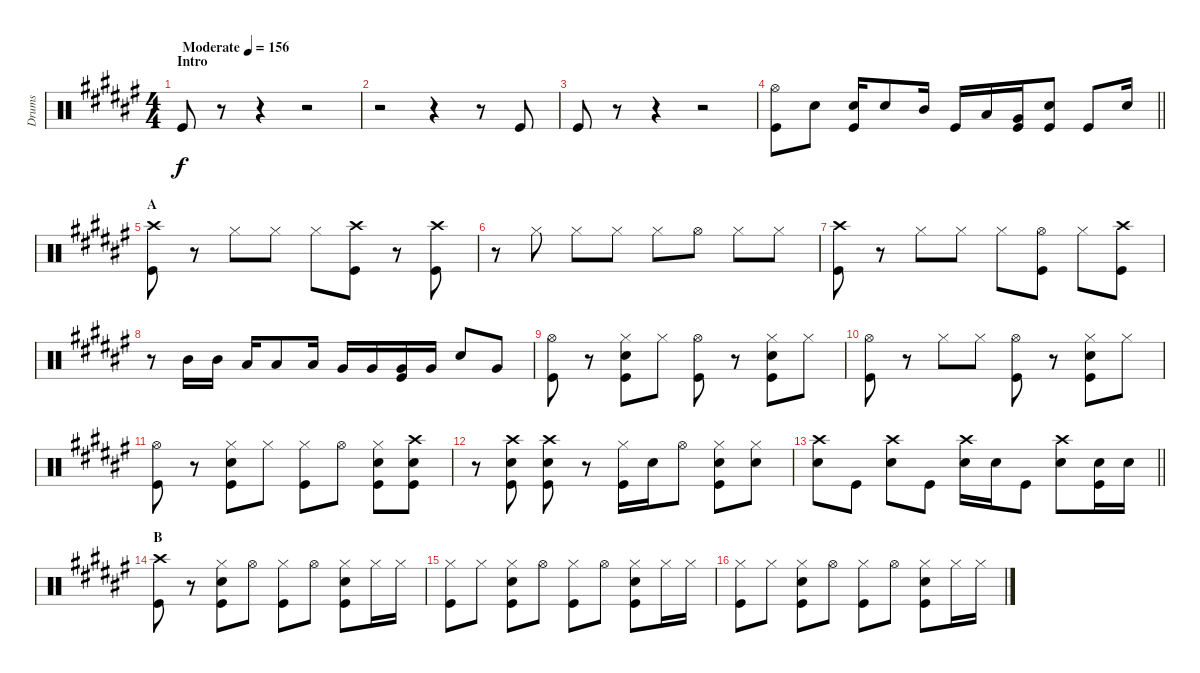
\track ("Drums" "Drums") {instrument percussion}
\staff {score}
\articulation defaults
\ts (4 4)
\section ("" "Intro")
\tempo (156 "Moderate")
\clef neutral
\ks f# "Kick (hit)".8{dy f}
r.8 r.4 r.2 |
r.2 r.4 r.8 "Kick (hit)".8 |
"Kick (hit)".8 r.8 r.4 r.2 |
\barLineRight lightlight
("Hi-Hat (open)" "Kick (hit)").8 "Snare (hit) 2".8 ("Snare (hit) 2" "Kick (hit)").16 "Snare (hit) 2".8 "Mid Tom (hit)".16 "Kick (hit)".16 "Low Tom (hit)".16 ("Very Low Tom (hit)" "Kick (hit)").16 ("Snare (hit) 2" "Kick (hit)").8 "Kick (hit)".8 "Snare (hit) 2".16 |
\section ("" "A")
("Crash high (hit)" "Kick (hit)").8 r.8 "Hi-Hat (closed)".8 "Hi-Hat (closed)".8 "Hi-Hat (closed)".8 ("Crash high (hit)" "Kick (hit)").8 r.8 ("Crash high (hit)" "Kick (hit)").8 |
r.8 "Hi-Hat (closed)".8 "Hi-Hat (closed)".8 "Hi-Hat (closed)".8 "Hi-Hat (closed)".8 "Hi-Hat (open)".8 "Hi-Hat (closed)".8 "Hi-Hat (closed)".8 |
("Crash high (hit)" "Kick (hit)").8 r.8 "Hi-Hat (closed)".8 "Hi-Hat (closed)".8 "Hi-Hat (closed)".8 ("Hi-Hat (open)" "Kick (hit)").8 "Hi-Hat (closed)".8 ("Crash high (hit)" "Kick (hit)").8 |
r.8 "Mid Tom (hit)".16 "Mid Tom (hit)".16 "Low Tom (hit)".16 "Low Tom (hit)".8 "Low Tom (hit)".16 "Very Low Tom (hit)".16 "Very Low Tom (hit)".16 ("Very Low Tom (hit)" "Kick (hit)").16 "Very Low Tom (hit)".16 "Snare (hit) 2".8 "Very Low Tom (hit)".8 |
("Hi-Hat (open)" "Kick (hit)").8 r.8 ("Hi-Hat (closed)" "Snare (hit) 2" "Kick (hit)").8 "Hi-Hat (closed)".8 ("Hi-Hat (open)" "Kick (hit)").8 r.8 ("Hi-Hat (closed)" "Snare (hit) 2" "Kick (hit)").8 "Hi-Hat (closed)".8 |
("Hi-Hat (open)" "Kick (hit)").8 r.8 "Hi-Hat (closed)".8 "Hi-Hat (closed)".8 ("Hi-Hat (open)" "Kick (hit)").8 r.8 ("Hi-Hat (closed)" "Snare (hit) 2" "Kick (hit)").8 "Hi-Hat (closed)".8 |
("Hi-Hat (open)" "Kick (hit)").8 r.8 ("Hi-Hat (closed)" "Snare (hit) 2" "Kick (hit)").8 "Hi-Hat (closed)".8 ("Hi-Hat (closed)" "Kick (hit)").8 "Hi-Hat (open)".8 ("Hi-Hat (closed)" "Snare (hit) 2" "Kick (hit)").8 ("Crash high (hit)" "Snare (hit) 2" "Kick (hit)").8 |
r.8 ("Crash high (hit)" "Snare (hit) 2" "Kick (hit)").8 ("Crash high (hit)" "Snare (hit) 2" "Kick (hit)").8 r.8 ("Hi-Hat (closed)" "Kick (hit)").16 "Snare (hit) 2".16 "Hi-Hat (open)".8 ("Hi-Hat (closed)" "Snare (hit) 2" "Kick (hit)").8 ("Hi-Hat (closed)" "Snare (hit) 2").8 |
\barLineRight lightlight
("Crash high (hit)" "Snare (hit) 2").8 "Kick (hit)".8 ("Crash high (hit)" "Snare (hit) 2").8 "Kick (hit)".8 ("Crash high (hit)" "Snare (hit) 2").16 "Snare (hit) 2".16 "Kick (hit)".8 ("Crash high (hit)" "Snare (hit) 2").8 ("Snare (hit) 2" "Kick (hit)").16 "Snare (hit) 2".16 |
\section ("" "B")
("Crash high (hit)" "Kick (hit)").8 r.8 ("Hi-Hat (closed)" "Snare (hit) 2" "Kick (hit)").8 "Hi-Hat (open)".8 ("Hi-Hat (closed)" "Kick (hit)").8 "Hi-Hat (open)".8 ("Hi-Hat (closed)" "Snare (hit) 2" "Kick (hit)").8 "Hi-Hat (closed)".16 "Hi-Hat (closed)".16 |
("Hi-Hat (closed)" "Kick (hit)").8 "Hi-Hat (closed)".8 ("Hi-Hat (closed)" "Snare (hit) 2" "Kick (hit)").8 "Hi-Hat (open)".8 ("Hi-Hat (closed)" "Kick (hit)").8 "Hi-Hat (open)".8 ("Hi-Hat (closed)" "Snare (hit) 2" "Kick (hit)").8 "Hi-Hat (closed)".16 "Hi-Hat (closed)".16 |
("Hi-Hat (closed)" "Kick (hit)").8 "Hi-Hat (closed)".8 ("Hi-Hat (closed)" "Snare (hit) 2" "Kick (hit)").8 "Hi-Hat (open)".8 ("Hi-Hat (closed)" "Kick (hit)").8 "Hi-Hat (open)".8 ("Hi-Hat (closed)" "Snare (hit) 2" "Kick (hit)").8 "Hi-Hat (closed)".16 "Hi-Hat (closed)".16
